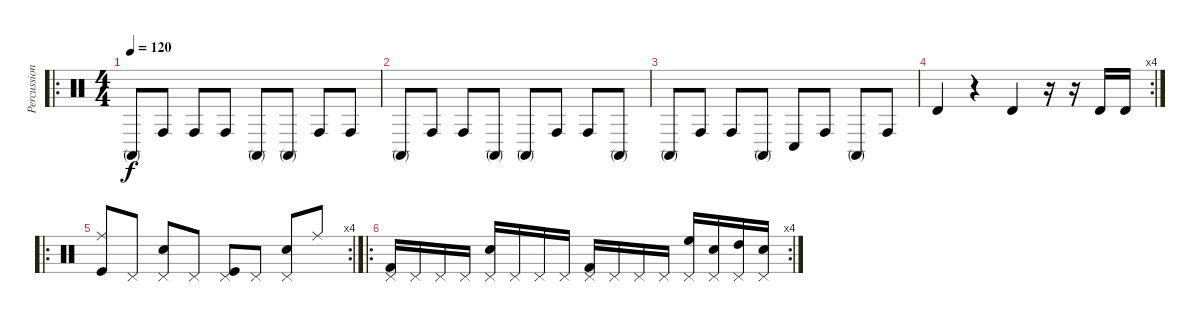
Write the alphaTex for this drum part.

\track ("Percussions" "Percussion") {instrument percussion}
\staff {score}
\articulation defaults
\ro
\ts (4 4)
\tempo 120
\clef neutral
\ks c "Conga high (mute)".8{dy f} "Conga high (hit)".8 "Conga high (hit)".8 "Conga high (hit)".8 "Conga high (mute)".8 "Conga high (mute)".8 "Conga high (hit)".8 "Conga high (hit)".8
|
"Conga high (mute)".8 "Conga high (hit)".8 "Conga high (hit)".8 "Conga high (mute)".8 "Conga high (mute)".8 "Conga high (hit)".8 "Conga high (hit)".8 "Conga high (mute)".8 |
"Conga high (mute)".8 "Conga high (hit)".8 "Conga high (hit)".8 "Conga high (mute)".8 "Conga low (hit)".8 "Conga high (hit)".8 "Conga high (mute)".8 "Conga high (hit)".8 |
\rc 4 "Timbale high (hit)".4
r.4 "Timbale high (hit)".4 r.16 r.16 "Timbale high (hit)".16 "Timbale high (hit)".16 |
\ro
\rc 4
("Ride (middle)" "Kick (hit)").8 "Pedal Hi-Hat (hit)".8 ("Pedal Hi-Hat (hit)" "Electric Snare (hit)").8 "Pedal Hi-Hat (hit)".8 ("Pedal Hi-Hat (hit)" "Kick (hit)").8 "Pedal Hi-Hat (hit)".8 ("Pedal Hi-Hat (hit)" "Electric Snare (hit)").8 "Ride (middle)".8 |
\ro
\rc 4
("Pedal Hi-Hat (hit)" "Kick (hit) 2").16 "Pedal Hi-Hat (hit)".16 "Pedal Hi-Hat (hit)".16 "Pedal Hi-Hat (hit)".16 ("Pedal Hi-Hat (hit)" "Electric Snare (hit)").16 "Pedal Hi-Hat (hit)".16 "Pedal Hi-Hat (hit)".16 "Pedal Hi-Hat (hit)".16 ("Pedal Hi-Hat (hit)" "Kick (hit) 2").16 "Pedal Hi-Hat (hit)".16 "Pedal Hi-Hat (hit)".16 "Pedal Hi-Hat (hit)".16 ("Pedal Hi-Hat (hit)" "High Floor Tom (hit)").16 ("Pedal Hi-Hat (hit)" "Electric Snare (hit)").16 ("Pedal Hi-Hat (hit)" "High Tom (hit)").16 ("Pedal Hi-Hat (hit)" "Electric Snare (hit)").16
